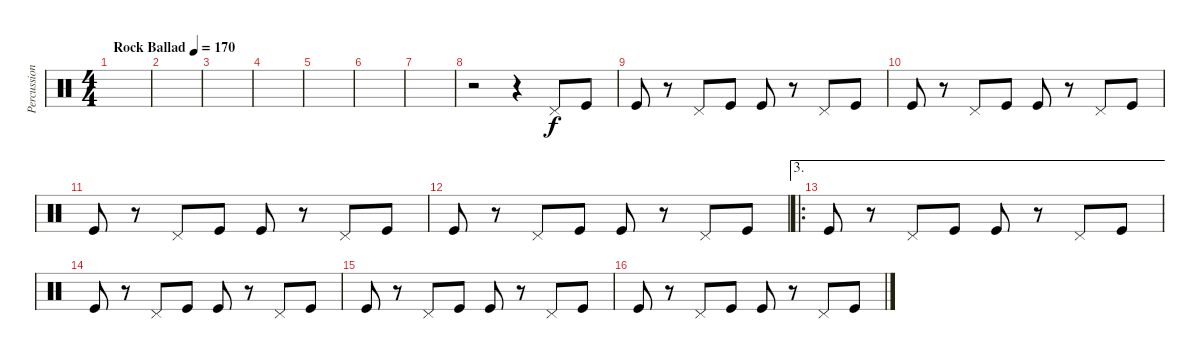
\track ("Percussions" "Percussion") {instrument percussion}
\staff {score}
\articulation defaults
\ts (4 4)
\tempo (170 "Rock Ballad")
\clef neutral
\ks c
|
|
|
|
|
|
|
r.2 r.4 "Pedal Hi-Hat (hit)".8 "Kick (hit)".8 |
"Kick (hit)".8 r.8 "Pedal Hi-Hat (hit)".8 "Kick (hit)".8 "Kick (hit)".8 r.8 "Pedal Hi-Hat (hit)".8 "Kick (hit)".8 |
"Kick (hit)".8 r.8 "Pedal Hi-Hat (hit)".8 "Kick (hit)".8 "Kick (hit)".8 r.8 "Pedal Hi-Hat (hit)".8 "Kick (hit)".8 |
"Kick (hit)".8 r.8 "Pedal Hi-Hat (hit)".8 "Kick (hit)".8 "Kick (hit)".8 r.8 "Pedal Hi-Hat (hit)".8 "Kick (hit)".8 |
"Kick (hit)".8 r.8 "Pedal Hi-Hat (hit)".8 "Kick (hit)".8 "Kick (hit)".8 r.8 "Pedal Hi-Hat (hit)".8 "Kick (hit)".8 |
\ae 3
\ro "Kick (hit)".8
r.8 "Pedal Hi-Hat (hit)".8 "Kick (hit)".8 "Kick (hit)".8 r.8 "Pedal Hi-Hat (hit)".8 "Kick (hit)".8 |
"Kick (hit)".8 r.8 "Pedal Hi-Hat (hit)".8 "Kick (hit)".8 "Kick (hit)".8 r.8 "Pedal Hi-Hat (hit)".8 "Kick (hit)".8 |
"Kick (hit)".8 r.8 "Pedal Hi-Hat (hit)".8 "Kick (hit)".8 "Kick (hit)".8 r.8 "Pedal Hi-Hat (hit)".8 "Kick (hit)".8 |
"Kick (hit)".8 r.8 "Pedal Hi-Hat (hit)".8 "Kick (hit)".8 "Kick (hit)".8 r.8 "Pedal Hi-Hat (hit)".8 "Kick (hit)".8
